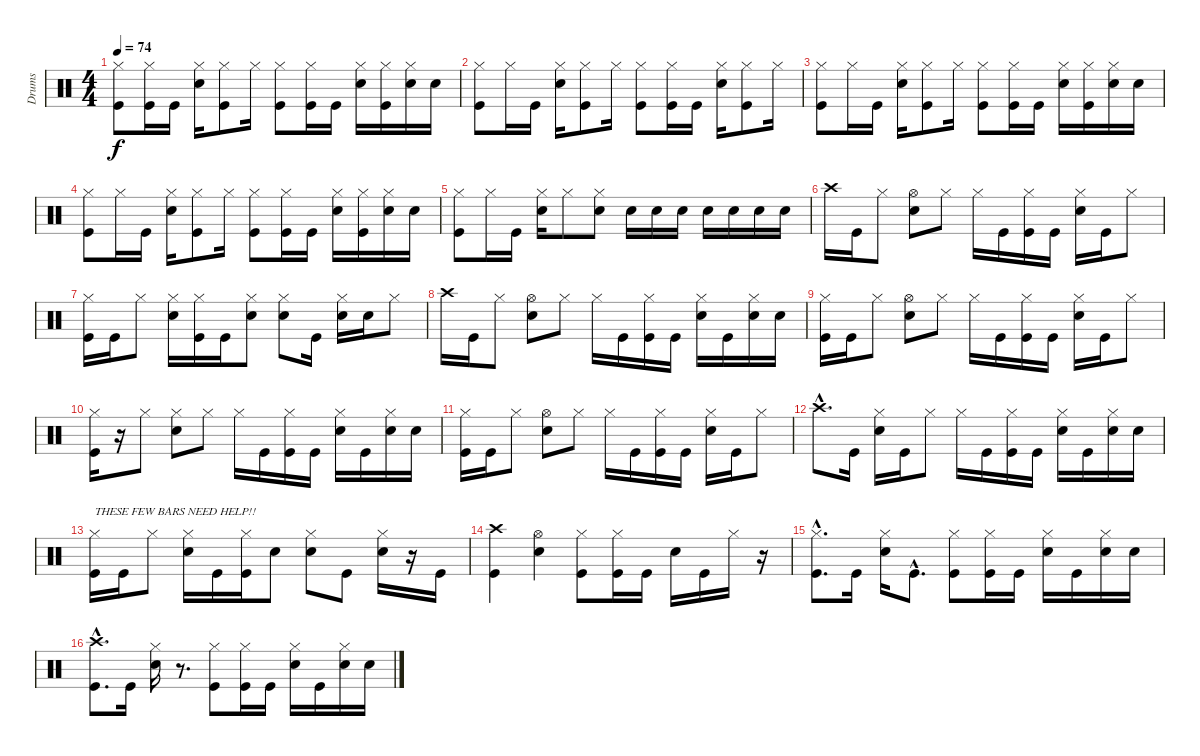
\track ("Drums" "Drums") {instrument percussion}
\staff {score}
\articulation defaults
\ts (4 4)
\tempo 74
\clef neutral
\ks c
("Hi-Hat (closed)" "Kick (hit)").8{dy f} ("Hi-Hat (closed)" "Kick (hit)").16 "Kick (hit)".16 ("Hi-Hat (closed)" "Snare (hit) 2").16 ("Hi-Hat (closed)" "Kick (hit)").8 "Hi-Hat (closed)".16 ("Hi-Hat (closed)" "Kick (hit)").8 ("Hi-Hat (closed)" "Kick (hit)").16 "Kick (hit)".16 ("Hi-Hat (closed)" "Snare (hit) 2").16 ("Hi-Hat (closed)" "Kick (hit)").16 ("Hi-Hat (closed)" "Snare (hit) 2").16 "Snare (hit) 2".16 |
("Hi-Hat (closed)" "Kick (hit)").8 "Hi-Hat (closed)".16 "Kick (hit)".16 ("Hi-Hat (closed)" "Snare (hit) 2").16 ("Hi-Hat (closed)" "Kick (hit)").8 "Hi-Hat (closed)".16 ("Hi-Hat (closed)" "Kick (hit)").8 ("Hi-Hat (closed)" "Kick (hit)").16 "Kick (hit)".16 ("Hi-Hat (closed)" "Snare (hit) 2").16 ("Hi-Hat (closed)" "Kick (hit)").8 "Hi-Hat (closed)".16 |
("Hi-Hat (closed)" "Kick (hit)").8 "Hi-Hat (closed)".16 "Kick (hit)".16 ("Hi-Hat (closed)" "Snare (hit) 2").16 ("Hi-Hat (closed)" "Kick (hit)").8 "Hi-Hat (closed)".16 ("Hi-Hat (closed)" "Kick (hit)").8 ("Hi-Hat (closed)" "Kick (hit)").16 "Kick (hit)".16 ("Hi-Hat (closed)" "Snare (hit) 2").16 ("Hi-Hat (closed)" "Kick (hit)").16 ("Hi-Hat (closed)" "Snare (hit) 2").16 "Snare (hit) 2".16 |
("Hi-Hat (closed)" "Kick (hit)").8 "Hi-Hat (closed)".16 "Kick (hit)".16 ("Hi-Hat (closed)" "Snare (hit) 2").16 ("Hi-Hat (closed)" "Kick (hit)").8 "Hi-Hat (closed)".16 ("Hi-Hat (closed)" "Kick (hit)").8 ("Hi-Hat (closed)" "Kick (hit)").16 "Kick (hit)".16 ("Hi-Hat (closed)" "Snare (hit) 2").16 ("Hi-Hat (closed)" "Kick (hit)").16 ("Hi-Hat (closed)" "Snare (hit) 2").16 "Snare (hit) 2".16 |
("Hi-Hat (closed)" "Kick (hit)").8 "Hi-Hat (closed)".16 "Kick (hit)".16 ("Hi-Hat (closed)" "Snare (hit) 2").16 "Hi-Hat (closed)".8 ("Hi-Hat (closed)" "Snare (hit) 2").8 "Snare (hit) 2".16 "Snare (hit) 2".16 "Snare (hit) 2".16 "Snare (hit) 2".16 "Snare (hit) 2".16 "Snare (hit) 2".16 "Snare (hit) 2".16 |
"Crash high (hit)".16 "Kick (hit)".16 "Hi-Hat (closed)".8 ("Hi-Hat (open)" "Snare (hit) 2").8 "Hi-Hat (closed)".8 "Hi-Hat (closed)".16 "Kick (hit)".16 ("Hi-Hat (closed)" "Kick (hit)").16 "Kick (hit)".16 ("Hi-Hat (closed)" "Snare (hit) 2").16 "Kick (hit)".16 "Hi-Hat (closed)".8 |
("Hi-Hat (closed)" "Kick (hit)").16 "Kick (hit)".16 "Hi-Hat (closed)".8 ("Hi-Hat (closed)" "Snare (hit) 2").16 ("Hi-Hat (closed)" "Kick (hit)").16 "Kick (hit)".16 ("Hi-Hat (closed)" "Snare (hit) 2").8 ("Hi-Hat (closed)" "Snare (hit) 2").8 "Kick (hit)".16 ("Hi-Hat (closed)" "Snare (hit) 2").16 "Snare (hit) 2".16 "Hi-Hat (closed)".8 |
"Crash high (hit)".16 "Kick (hit)".16 "Hi-Hat (closed)".8 ("Hi-Hat (open)" "Snare (hit) 2").8 "Hi-Hat (closed)".8 "Hi-Hat (closed)".16 "Kick (hit)".16 ("Hi-Hat (closed)" "Kick (hit)").16 "Kick (hit)".16 ("Hi-Hat (closed)" "Snare (hit) 2").16 "Kick (hit)".16 ("Hi-Hat (closed)" "Snare (hit) 2").16 "Snare (hit) 2".16 |
("Hi-Hat (closed)" "Kick (hit)").16 "Kick (hit)".16 "Hi-Hat (closed)".8 ("Hi-Hat (open)" "Snare (hit) 2").8 "Hi-Hat (closed)".8 "Hi-Hat (closed)".16 "Kick (hit)".16 ("Hi-Hat (closed)" "Kick (hit)").16 "Kick (hit)".16 ("Hi-Hat (closed)" "Snare (hit) 2").16 "Kick (hit)".16 "Hi-Hat (closed)".8 |
("Hi-Hat (closed)" "Kick (hit)").16 r.16 "Hi-Hat (closed)".8 ("Hi-Hat (closed)" "Snare (hit) 2").8 "Hi-Hat (closed)".8 "Hi-Hat (closed)".16 "Kick (hit)".16 ("Hi-Hat (closed)" "Kick (hit)").16 "Kick (hit)".16 ("Hi-Hat (closed)" "Snare (hit) 2").16 "Kick (hit)".16 ("Hi-Hat (closed)" "Snare (hit) 2").16 "Snare (hit) 2".16 |
("Hi-Hat (closed)" "Kick (hit)").16 "Kick (hit)".16 "Hi-Hat (closed)".8 ("Hi-Hat (open)" "Snare (hit) 2").8 "Hi-Hat (closed)".8 "Hi-Hat (closed)".16 "Kick (hit)".16 ("Hi-Hat (closed)" "Kick (hit)").16 "Kick (hit)".16 ("Hi-Hat (closed)" "Snare (hit) 2").16 "Kick (hit)".16 "Hi-Hat (closed)".8 |
"Crash high (hit)"{hac}.8{d} "Kick (hit)".16 ("Hi-Hat (closed)" "Snare (hit) 2").16 "Kick (hit)".16 "Hi-Hat (closed)".8 "Hi-Hat (closed)".16 "Kick (hit)".16 ("Hi-Hat (closed)" "Kick (hit)").16 "Kick (hit)".16 ("Hi-Hat (closed)" "Snare (hit) 2").16 "Kick (hit)".16 ("Hi-Hat (closed)" "Snare (hit) 2").16 "Snare (hit) 2".16 |
("Hi-Hat (closed)" "Kick (hit)").16{txt "THESE FEW BARS NEED HELP!!"} "Kick (hit)".16 "Hi-Hat (closed)".8 ("Hi-Hat (closed)" "Snare (hit) 2").16 "Kick (hit)".16 ("Hi-Hat (closed)" "Kick (hit)").16 "Snare (hit) 2".8 ("Hi-Hat (closed)" "Snare (hit) 2").8 "Kick (hit)".8 ("Hi-Hat (closed)" "Snare (hit) 2").16 r.16 "Kick (hit)".16 |
("Crash high (hit)" "Kick (hit)").4 ("Hi-Hat (open)" "Snare (hit) 2").4 ("Hi-Hat (closed)" "Kick (hit)").8 ("Hi-Hat (closed)" "Kick (hit)").16 "Kick (hit)".16 "Snare (hit) 2".16 "Kick (hit)".16 "Hi-Hat (closed)".16 r.16 |
("Hi-Hat (closed)"{hac} "Kick (hit)"{hac}).8{d} "Kick (hit)".16 ("Hi-Hat (closed)" "Snare (hit) 2").16 "Kick (hit)"{hac}.8{d} ("Hi-Hat (closed)" "Kick (hit)").8 ("Hi-Hat (closed)" "Kick (hit)").16 "Kick (hit)".16 ("Hi-Hat (closed)" "Snare (hit) 2").16 "Kick (hit)".16 ("Hi-Hat (closed)" "Snare (hit) 2").16 "Snare (hit) 2".16 |
("Crash high (hit)"{hac} "Kick (hit)"{hac}).8{d} "Kick (hit)".16 ("Hi-Hat (closed)" "Snare (hit) 2").16 r.8{d} ("Hi-Hat (closed)" "Kick (hit)").8 ("Hi-Hat (closed)" "Kick (hit)").16 "Kick (hit)".16 ("Hi-Hat (closed)" "Snare (hit) 2").16 "Kick (hit)".16 ("Hi-Hat (closed)" "Snare (hit) 2").16 "Snare (hit) 2".16
